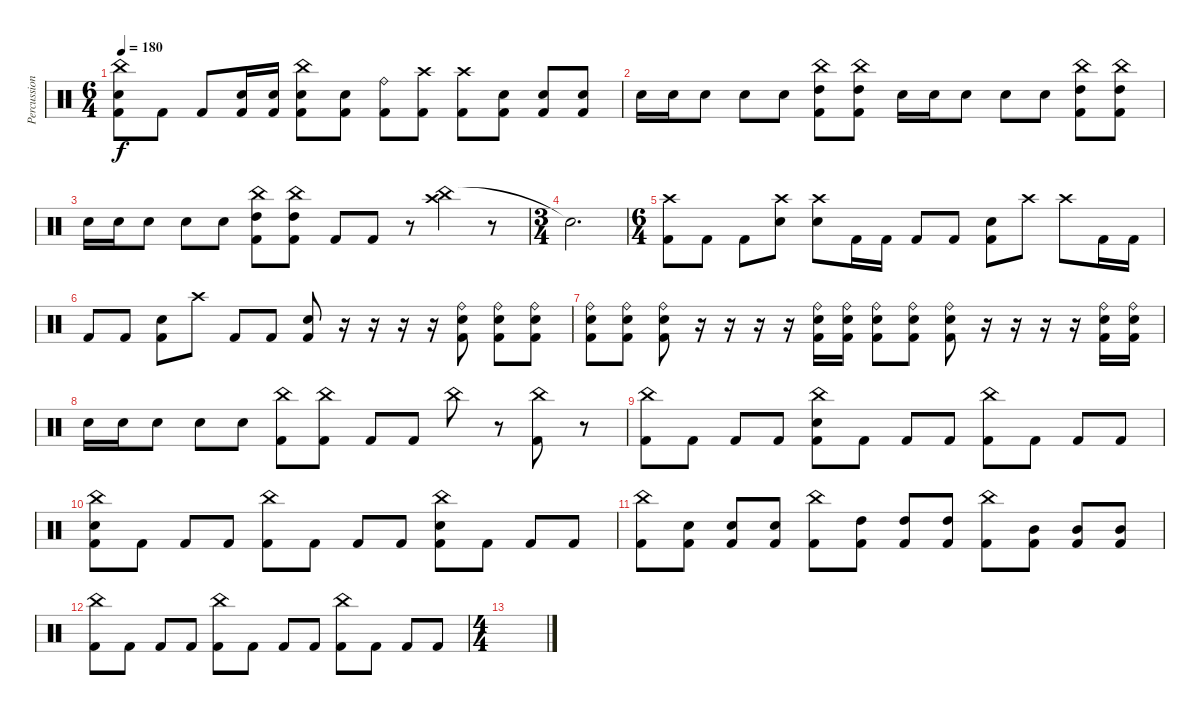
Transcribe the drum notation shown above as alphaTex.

\track ("Percussion" "Percussion") {instrument percussion}
\staff {score}
\articulation defaults
\ts (6 4)
\tempo 180
\clef neutral
\ks c
("China (hit)" "Electric Snare (hit)" "Kick (hit) 2").8{dy f} "Kick (hit) 2".8 "Kick (hit) 2".8 ("Electric Snare (hit)" "Kick (hit) 2").16 ("Electric Snare (hit)" "Kick (hit) 2").16 ("China (hit)" "Electric Snare (hit)" "Kick (hit) 2").8 ("Electric Snare (hit)" "Kick (hit) 2").8 ("Ride (bell)" "Kick (hit) 2").8 ("Crash high (hit)" "Kick (hit) 2").8 ("Crash high (hit)" "Kick (hit) 2").8 ("Electric Snare (hit)" "Kick (hit) 2").8 ("Electric Snare (hit)" "Kick (hit) 2").8 ("Electric Snare (hit)" "Kick (hit) 2").8 |
"Electric Snare (hit)".16 "Electric Snare (hit)".16 "Electric Snare (hit)".8 "Electric Snare (hit)".8 "Electric Snare (hit)".8 ("China (hit)" "High Tom (hit)" "Kick (hit) 2").8 ("China (hit)" "High Tom (hit)" "Kick (hit) 2").8 "Electric Snare (hit)".16 "Electric Snare (hit)".16 "Electric Snare (hit)".8 "Electric Snare (hit)".8 "Electric Snare (hit)".8 ("China (hit)" "High Tom (hit)" "Kick (hit) 2").8 ("China (hit)" "High Tom (hit)" "Kick (hit) 2").8 |
"Electric Snare (hit)".16 "Electric Snare (hit)".16 "Electric Snare (hit)".8 "Electric Snare (hit)".8 "Electric Snare (hit)".8 ("China (hit)" "High Tom (hit)" "Kick (hit) 2").8 ("China (hit)" "High Tom (hit)" "Kick (hit) 2").8 "Kick (hit) 2".8 "Kick (hit) 2".8 r.8 ("China (hit)" "Crash high (hit)").4 r.8 |
\ts (3 4)
"Snare (hit)"{t}.2{d} |
\ts (6 4)
("Crash high (hit)" "Kick (hit) 2").8 "Kick (hit) 2".8 "Kick (hit) 2".8 ("Crash high (hit)" "Electric Snare (hit)").8 ("Crash high (hit)" "Electric Snare (hit)").8 "Kick (hit) 2".16 "Kick (hit) 2".16 "Kick (hit) 2".8 "Kick (hit) 2".8 ("Electric Snare (hit)" "Kick (hit) 2").8 "Crash high (hit)".8 "Crash high (hit)".8 "Kick (hit) 2".16 "Kick (hit) 2".16 |
"Kick (hit) 2".8 "Kick (hit) 2".8 ("Electric Snare (hit)" "Kick (hit) 2").8 "Crash high (hit)".8 "Kick (hit) 2".8 "Kick (hit) 2".8 ("Electric Snare (hit)" "Kick (hit) 2").8 r.16 r.16 r.16 r.16 ("Ride (bell)" "Electric Snare (hit)" "Kick (hit) 2").8 ("Ride (bell)" "Electric Snare (hit)" "Kick (hit) 2").8 ("Ride (bell)" "Electric Snare (hit)" "Kick (hit) 2").8 |
("Ride (bell)" "Electric Snare (hit)" "Kick (hit) 2").8 ("Ride (bell)" "Electric Snare (hit)" "Kick (hit) 2").8 ("Ride (bell)" "Electric Snare (hit)" "Kick (hit) 2").8 r.16 r.16 r.16 r.16 ("Ride (bell)" "Electric Snare (hit)" "Kick (hit) 2").16 ("Ride (bell)" "Electric Snare (hit)" "Kick (hit) 2").16 ("Ride (bell)" "Electric Snare (hit)" "Kick (hit) 2").8 ("Ride (bell)" "Electric Snare (hit)" "Kick (hit) 2").8 ("Ride (bell)" "Electric Snare (hit)" "Kick (hit) 2").8 r.16 r.16 r.16 r.16 ("Ride (bell)" "Electric Snare (hit)" "Kick (hit) 2").16 ("Ride (bell)" "Electric Snare (hit)" "Kick (hit) 2").16 |
"Electric Snare (hit)".16 "Electric Snare (hit)".16 "Electric Snare (hit)".8 "Electric Snare (hit)".8 "Electric Snare (hit)".8 ("China (hit)" "Kick (hit) 2").8 ("China (hit)" "Kick (hit) 2").8 "Kick (hit) 2".8 "Kick (hit) 2".8 "China (hit)".8 r.8 ("China (hit)" "Kick (hit) 2").8 r.8 |
("China (hit)" "Kick (hit) 2").8 "Kick (hit) 2".8 "Kick (hit) 2".8 "Kick (hit) 2".8 ("China (hit)" "Electric Snare (hit)" "Kick (hit) 2").8 "Kick (hit) 2".8 "Kick (hit) 2".8 "Kick (hit) 2".8 ("China (hit)" "Kick (hit) 2").8 "Kick (hit) 2".8 "Kick (hit) 2".8 "Kick (hit) 2".8 |
("China (hit)" "Electric Snare (hit)" "Kick (hit) 2").8 "Kick (hit) 2".8 "Kick (hit) 2".8 "Kick (hit) 2".8 ("China (hit)" "Kick (hit) 2").8 "Kick (hit) 2".8 "Kick (hit) 2".8 "Kick (hit) 2".8 ("China (hit)" "Electric Snare (hit)" "Kick (hit) 2").8 "Kick (hit) 2".8 "Kick (hit) 2".8 "Kick (hit) 2".8 |
("China (hit)" "Kick (hit) 2").8 ("Electric Snare (hit)" "Kick (hit) 2").8 ("Electric Snare (hit)" "Kick (hit) 2").8 ("Electric Snare (hit)" "Kick (hit) 2").8 ("China (hit)" "Kick (hit) 2").8 ("High Tom (hit)" "Kick (hit) 2").8 ("High Tom (hit)" "Kick (hit) 2").8 ("High Tom (hit)" "Kick (hit) 2").8 ("China (hit)" "Kick (hit) 2").8 ("Mid Tom (hit)" "Kick (hit) 2").8 ("Mid Tom (hit)" "Kick (hit) 2").8 ("Mid Tom (hit)" "Kick (hit) 2").8 |
("China (hit)" "Kick (hit) 2").8 "Kick (hit) 2".8 "Kick (hit) 2".8 "Kick (hit) 2".8 ("China (hit)" "Kick (hit) 2").8 "Kick (hit) 2".8 "Kick (hit) 2".8 "Kick (hit) 2".8 ("China (hit)" "Kick (hit) 2").8 "Kick (hit) 2".8 "Kick (hit) 2".8 "Kick (hit) 2".8 |
\ts (4 4)
